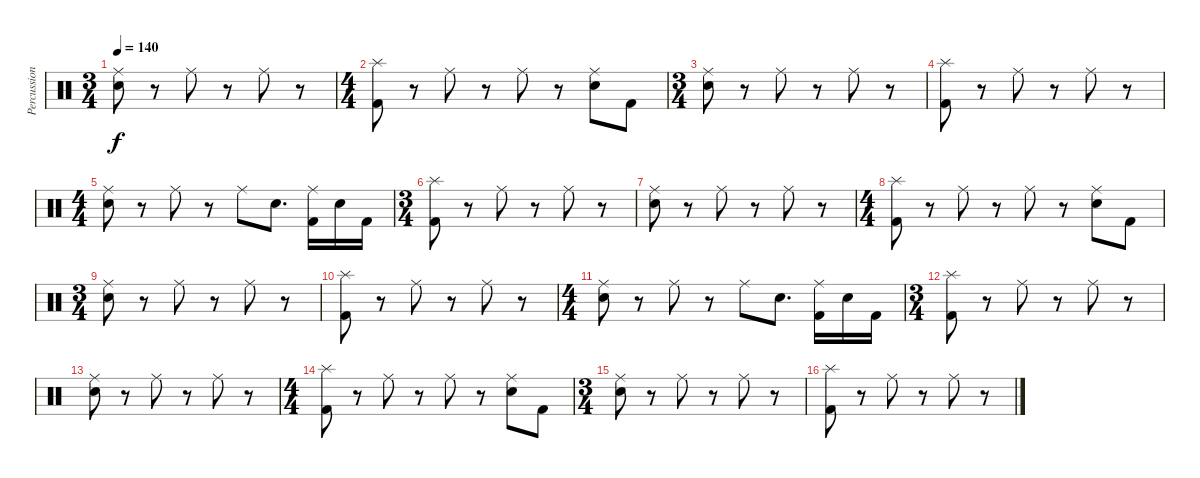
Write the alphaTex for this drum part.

\track ("Percussion" "Percussion") {instrument percussion}
\staff {score}
\articulation defaults
\ts (3 4)
\tempo 140
\clef neutral
\ks c
("Ride (middle)" "Electric Snare (hit)").8{dy f} r.8 "Ride (middle)".8 r.8 "Ride (middle)".8 r.8 |
\ts (4 4)
("Splash (hit)" "Kick (hit) 2").8 r.8 "Ride (middle)".8 r.8 "Ride (middle)".8 r.8 ("Ride (middle)" "Electric Snare (hit)").8 "Kick (hit) 2".8 |
\ts (3 4)
("Ride (middle)" "Electric Snare (hit)").8 r.8 "Ride (middle)".8 r.8 "Ride (middle)".8 r.8 |
("Splash (hit)" "Kick (hit) 2").8 r.8 "Ride (middle)".8 r.8 "Ride (middle)".8 r.8 |
\ts (4 4)
("Ride (middle)" "Electric Snare (hit)").8 r.8 "Ride (middle)".8 r.8 "Ride (middle)".8 "Electric Snare (hit)".8{d} ("Ride (middle)" "Kick (hit) 2").16 "Electric Snare (hit)".16 "Kick (hit) 2".16 |
\ts (3 4)
("Splash (hit)" "Kick (hit) 2").8 r.8 "Ride (middle)".8 r.8 "Ride (middle)".8 r.8 |
("Ride (middle)" "Electric Snare (hit)").8 r.8 "Ride (middle)".8 r.8 "Ride (middle)".8 r.8 |
\ts (4 4)
("Splash (hit)" "Kick (hit) 2").8 r.8 "Ride (middle)".8 r.8 "Ride (middle)".8 r.8 ("Ride (middle)" "Electric Snare (hit)").8 "Kick (hit) 2".8 |
\ts (3 4)
("Ride (middle)" "Electric Snare (hit)").8 r.8 "Ride (middle)".8 r.8 "Ride (middle)".8 r.8 |
("Splash (hit)" "Kick (hit) 2").8 r.8 "Ride (middle)".8 r.8 "Ride (middle)".8 r.8 |
\ts (4 4)
("Ride (middle)" "Electric Snare (hit)").8 r.8 "Ride (middle)".8 r.8 "Ride (middle)".8 "Electric Snare (hit)".8{d} ("Ride (middle)" "Kick (hit) 2").16 "Electric Snare (hit)".16 "Kick (hit) 2".16 |
\ts (3 4)
("Splash (hit)" "Kick (hit) 2").8 r.8 "Ride (middle)".8 r.8 "Ride (middle)".8 r.8 |
("Ride (middle)" "Electric Snare (hit)").8 r.8 "Ride (middle)".8 r.8 "Ride (middle)".8 r.8 |
\ts (4 4)
("Splash (hit)" "Kick (hit) 2").8 r.8 "Ride (middle)".8 r.8 "Ride (middle)".8 r.8 ("Ride (middle)" "Electric Snare (hit)").8 "Kick (hit) 2".8 |
\ts (3 4)
("Ride (middle)" "Electric Snare (hit)").8 r.8 "Ride (middle)".8 r.8 "Ride (middle)".8 r.8 |
("Splash (hit)" "Kick (hit) 2").8 r.8 "Ride (middle)".8 r.8 "Ride (middle)".8 r.8
